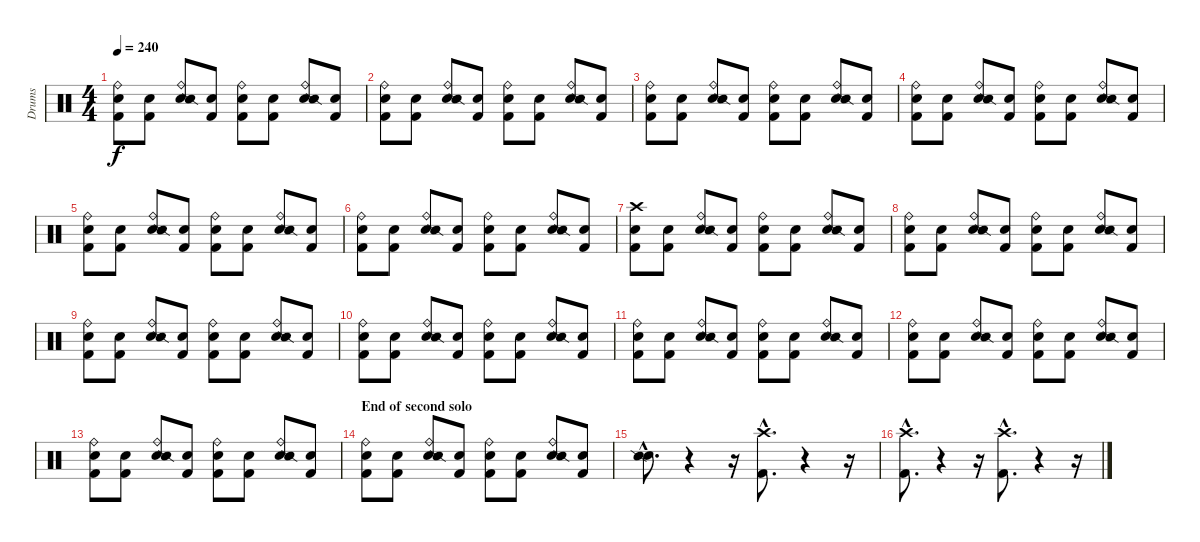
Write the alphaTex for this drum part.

\track ("Drums" "Drums") {instrument percussion}
\staff {score}
\articulation defaults
\ts (4 4)
\tempo 240
\clef neutral
\ks c
("Snare (hit)" "Kick (hit) 2" "Ride (bell)").8{dy f} ("Snare (hit)" "Kick (hit) 2").8 ("Snare (hit)" "Ride (bell)" "Snare (side stick) 2").8 ("Snare (hit)" "Kick (hit) 2").8 ("Snare (hit)" "Kick (hit) 2" "Ride (bell)").8 ("Snare (hit)" "Kick (hit) 2").8 ("Snare (hit)" "Ride (bell)" "Snare (side stick) 2").8 ("Snare (hit)" "Kick (hit) 2").8 |
("Snare (hit)" "Kick (hit) 2" "Ride (bell)").8 ("Snare (hit)" "Kick (hit) 2").8 ("Snare (hit)" "Ride (bell)" "Snare (side stick) 2").8 ("Snare (hit)" "Kick (hit) 2").8 ("Snare (hit)" "Kick (hit) 2" "Ride (bell)").8 ("Snare (hit)" "Kick (hit) 2").8 ("Snare (hit)" "Ride (bell)" "Snare (side stick) 2").8 ("Snare (hit)" "Kick (hit) 2").8 |
("Snare (hit)" "Kick (hit) 2" "Ride (bell)").8 ("Snare (hit)" "Kick (hit) 2").8 ("Snare (hit)" "Ride (bell)" "Snare (side stick) 2").8 ("Snare (hit)" "Kick (hit) 2").8 ("Snare (hit)" "Kick (hit) 2" "Ride (bell)").8 ("Snare (hit)" "Kick (hit) 2").8 ("Snare (hit)" "Ride (bell)" "Snare (side stick) 2").8 ("Snare (hit)" "Kick (hit) 2").8 |
("Snare (hit)" "Kick (hit) 2" "Ride (bell)").8 ("Snare (hit)" "Kick (hit) 2").8 ("Snare (hit)" "Ride (bell)" "Snare (side stick) 2").8 ("Snare (hit)" "Kick (hit) 2").8 ("Snare (hit)" "Kick (hit) 2" "Ride (bell)").8 ("Snare (hit)" "Kick (hit) 2").8 ("Snare (hit)" "Ride (bell)" "Snare (side stick) 2").8 ("Snare (hit)" "Kick (hit) 2").8 |
("Snare (hit)" "Kick (hit) 2" "Ride (bell)").8 ("Snare (hit)" "Kick (hit) 2").8 ("Snare (hit)" "Ride (bell)" "Snare (side stick) 2").8 ("Snare (hit)" "Kick (hit) 2").8 ("Snare (hit)" "Kick (hit) 2" "Ride (bell)").8 ("Snare (hit)" "Kick (hit) 2").8 ("Snare (hit)" "Ride (bell)" "Snare (side stick) 2").8 ("Snare (hit)" "Kick (hit) 2").8 |
("Snare (hit)" "Kick (hit) 2" "Ride (bell)").8 ("Snare (hit)" "Kick (hit) 2").8 ("Snare (hit)" "Ride (bell)" "Snare (side stick) 2").8 ("Snare (hit)" "Kick (hit) 2").8 ("Snare (hit)" "Kick (hit) 2" "Ride (bell)").8 ("Snare (hit)" "Kick (hit) 2").8 ("Snare (hit)" "Ride (bell)" "Snare (side stick) 2").8 ("Snare (hit)" "Kick (hit) 2").8 |
("Snare (hit)" "Kick (hit) 2" "Crash high (hit)").8 ("Snare (hit)" "Kick (hit) 2").8 ("Snare (hit)" "Ride (bell)" "Snare (side stick) 2").8 ("Snare (hit)" "Kick (hit) 2").8 ("Snare (hit)" "Kick (hit) 2" "Ride (bell)").8 ("Snare (hit)" "Kick (hit) 2").8 ("Snare (hit)" "Ride (bell)" "Snare (side stick) 2").8 ("Snare (hit)" "Kick (hit) 2").8 |
("Snare (hit)" "Kick (hit) 2" "Ride (bell)").8 ("Snare (hit)" "Kick (hit) 2").8 ("Snare (hit)" "Ride (bell)" "Snare (side stick) 2").8 ("Snare (hit)" "Kick (hit) 2").8 ("Snare (hit)" "Kick (hit) 2" "Ride (bell)").8 ("Snare (hit)" "Kick (hit) 2").8 ("Snare (hit)" "Ride (bell)" "Snare (side stick) 2").8 ("Snare (hit)" "Kick (hit) 2").8 |
("Snare (hit)" "Kick (hit) 2" "Ride (bell)").8 ("Snare (hit)" "Kick (hit) 2").8 ("Snare (hit)" "Ride (bell)" "Snare (side stick) 2").8 ("Snare (hit)" "Kick (hit) 2").8 ("Snare (hit)" "Kick (hit) 2" "Ride (bell)").8 ("Snare (hit)" "Kick (hit) 2").8 ("Snare (hit)" "Ride (bell)" "Snare (side stick) 2").8 ("Snare (hit)" "Kick (hit) 2").8 |
("Snare (hit)" "Kick (hit) 2" "Ride (bell)").8 ("Snare (hit)" "Kick (hit) 2").8 ("Snare (hit)" "Ride (bell)" "Snare (side stick) 2").8 ("Snare (hit)" "Kick (hit) 2").8 ("Snare (hit)" "Kick (hit) 2" "Ride (bell)").8 ("Snare (hit)" "Kick (hit) 2").8 ("Snare (hit)" "Ride (bell)" "Snare (side stick) 2").8 ("Snare (hit)" "Kick (hit) 2").8 |
("Snare (hit)" "Kick (hit) 2" "Ride (bell)").8 ("Snare (hit)" "Kick (hit) 2").8 ("Snare (hit)" "Ride (bell)" "Snare (side stick) 2").8 ("Snare (hit)" "Kick (hit) 2").8 ("Snare (hit)" "Kick (hit) 2" "Ride (bell)").8 ("Snare (hit)" "Kick (hit) 2").8 ("Snare (hit)" "Ride (bell)" "Snare (side stick) 2").8 ("Snare (hit)" "Kick (hit) 2").8 |
("Snare (hit)" "Kick (hit) 2" "Ride (bell)").8 ("Snare (hit)" "Kick (hit) 2").8 ("Snare (hit)" "Ride (bell)" "Snare (side stick) 2").8 ("Snare (hit)" "Kick (hit) 2").8 ("Snare (hit)" "Kick (hit) 2" "Ride (bell)").8 ("Snare (hit)" "Kick (hit) 2").8 ("Snare (hit)" "Ride (bell)" "Snare (side stick) 2").8 ("Snare (hit)" "Kick (hit) 2").8 |
("Snare (hit)" "Kick (hit) 2" "Ride (bell)").8 ("Snare (hit)" "Kick (hit) 2").8 ("Snare (hit)" "Ride (bell)" "Snare (side stick) 2").8 ("Snare (hit)" "Kick (hit) 2").8 ("Snare (hit)" "Kick (hit) 2" "Ride (bell)").8 ("Snare (hit)" "Kick (hit) 2").8 ("Snare (hit)" "Ride (bell)" "Snare (side stick) 2").8 ("Snare (hit)" "Kick (hit) 2").8 |
\section ("" "End of second solo")
("Snare (hit)" "Kick (hit) 2" "Ride (bell)").8 ("Snare (hit)" "Kick (hit) 2").8 ("Snare (hit)" "Ride (bell)" "Snare (side stick) 2").8 ("Snare (hit)" "Kick (hit) 2").8 ("Snare (hit)" "Kick (hit) 2" "Ride (bell)").8 ("Snare (hit)" "Kick (hit) 2").8 ("Snare (hit)" "Ride (bell)" "Snare (side stick) 2").8 ("Snare (hit)" "Kick (hit) 2").8 |
("Snare (hit)"{hac} "Snare (side stick) 2"{hac}).8{d} r.4 r.16 ("Kick (hit) 2"{hac} "Crash high (hit)"{hac}).8{d} r.4 r.16 |
("Kick (hit) 2"{hac} "Crash high (hit)"{hac}).8{d} r.4 r.16 ("Kick (hit) 2"{hac} "Crash high (hit)"{hac}).8{d} r.4 r.16
